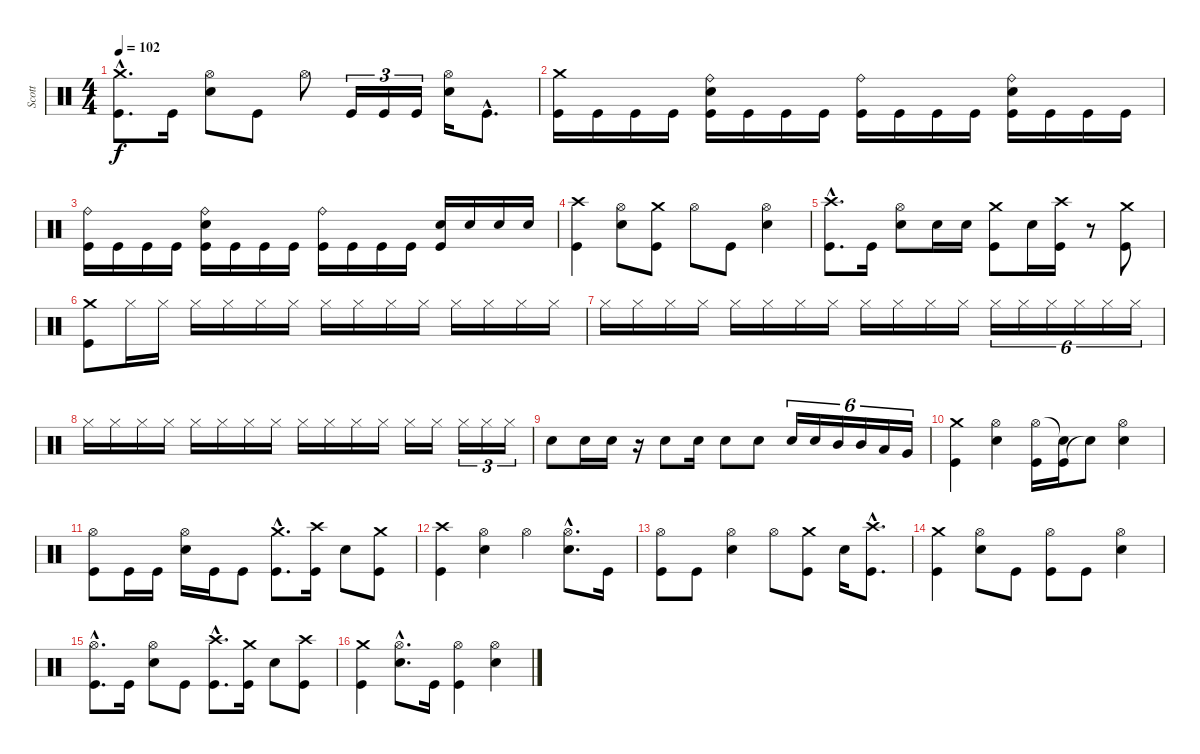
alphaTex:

\track ("Scott" "Scott") {instrument percussion}
\staff {score}
\articulation defaults
\ts (4 4)
\tempo 102
\clef neutral
\ks c
("Kick (hit)"{hac} "Crash medium (hit)"{hac}).8{d dy f} "Kick (hit)".16 ("Snare (hit) 2" "Hi-Hat (open)").8 "Kick (hit)".8 "Hi-Hat (open)".8 "Kick (hit)".16{tu (3 2)} "Kick (hit)".16{tu (3 2)} "Kick (hit)".16{tu (3 2)} ("Snare (hit) 2" "Hi-Hat (open)").16 "Kick (hit)"{hac}.8{d} |
("Kick (hit)" "Crash medium (hit)").16 "Kick (hit)".16 "Kick (hit)".16 "Kick (hit)".16 ("Kick (hit)" "Snare (hit) 2" "Ride (bell)").16 "Kick (hit)".16 "Kick (hit)".16 "Kick (hit)".16 ("Kick (hit)" "Ride (bell)").16 "Kick (hit)".16 "Kick (hit)".16 "Kick (hit)".16 ("Kick (hit)" "Snare (hit) 2" "Ride (bell)").16 "Kick (hit)".16 "Kick (hit)".16 "Kick (hit)".16 |
("Kick (hit)" "Ride (bell)").16 "Kick (hit)".16 "Kick (hit)".16 "Kick (hit)".16 ("Kick (hit)" "Snare (hit) 2" "Ride (bell)").16 "Kick (hit)".16 "Kick (hit)".16 "Kick (hit)".16 ("Kick (hit)" "Ride (bell)").16 "Kick (hit)".16 "Kick (hit)".16 "Kick (hit)".16 ("Kick (hit)" "Snare (hit) 2").16 "Snare (hit) 2".16 "Snare (hit) 2".16 "Snare (hit) 2".16 |
("Kick (hit)" "Crash high (hit)").4 ("Snare (hit) 2" "Hi-Hat (open)").8 ("Kick (hit)" "Crash medium (hit)").8 "Hi-Hat (open)".8 "Kick (hit)".8 ("Snare (hit) 2" "Hi-Hat (open)").4 |
("Kick (hit)"{hac} "Crash high (hit)"{hac}).8{d} "Kick (hit)".16 ("Snare (hit) 2" "Hi-Hat (open)").8 "Snare (hit) 2".16 "Snare (hit) 2".16 ("Kick (hit)" "Crash medium (hit)").8 "Snare (hit) 2".16 ("Kick (hit)" "Crash high (hit)").16 r.8 ("Kick (hit)" "Crash medium (hit)").8 |
("Kick (hit)" "Crash medium (hit)").8 "Hi-Hat (closed)".16 "Hi-Hat (closed)".16 "Hi-Hat (closed)".16 "Hi-Hat (closed)".16 "Hi-Hat (closed)".16 "Hi-Hat (closed)".16 "Hi-Hat (closed)".16 "Hi-Hat (closed)".16 "Hi-Hat (closed)".16 "Hi-Hat (closed)".16 "Hi-Hat (closed)".16 "Hi-Hat (closed)".16 "Hi-Hat (closed)".16 "Hi-Hat (closed)".16 |
"Hi-Hat (closed)".16 "Hi-Hat (closed)".16 "Hi-Hat (closed)".16 "Hi-Hat (closed)".16 "Hi-Hat (closed)".16 "Hi-Hat (closed)".16 "Hi-Hat (closed)".16 "Hi-Hat (closed)".16 "Hi-Hat (closed)".16 "Hi-Hat (closed)".16 "Hi-Hat (closed)".16 "Hi-Hat (closed)".16 "Hi-Hat (closed)".16{tu (6 4)} "Hi-Hat (closed)".16{tu (6 4)} "Hi-Hat (closed)".16{tu (6 4)} "Hi-Hat (closed)".16{tu (6 4)} "Hi-Hat (closed)".16{tu (6 4)} "Hi-Hat (closed)".16{tu (6 4)} |
"Hi-Hat (closed)".16 "Hi-Hat (closed)".16 "Hi-Hat (closed)".16 "Hi-Hat (closed)".16 "Hi-Hat (closed)".16 "Hi-Hat (closed)".16 "Hi-Hat (closed)".16 "Hi-Hat (closed)".16 "Hi-Hat (closed)".16 "Hi-Hat (closed)".16 "Hi-Hat (closed)".16 "Hi-Hat (closed)".16 "Hi-Hat (closed)".16 "Hi-Hat (closed)".16 "Hi-Hat (closed)".16{tu (3 2)} "Hi-Hat (closed)".16{tu (3 2)} "Hi-Hat (closed)".16{tu (3 2)} |
"Snare (hit) 2".8 "Snare (hit) 2".16 "Snare (hit) 2".16 r.16 "Snare (hit) 2".8 "Snare (hit) 2".16 "Snare (hit) 2".8 "Snare (hit) 2".8 "Snare (hit) 2".16{tu (6 4)} "Snare (hit) 2".16{tu (6 4)} "Mid Tom (hit)".16{tu (6 4)} "Mid Tom (hit)".16{tu (6 4)} "Low Tom (hit)".16{tu (6 4)} "Very Low Tom (hit)".16{tu (6 4)} |
("Kick (hit)" "Crash medium (hit)").4 ("Snare (hit) 2" "Hi-Hat (open)").4 ("Kick (hit)" "Hi-Hat (open)").16 ("Kick (hit)" "Snare (hit)"{t}).16 "Snare (hit)"{t}.8 ("Snare (hit) 2" "Hi-Hat (open)").4 |
("Kick (hit)" "Hi-Hat (open)").8 "Kick (hit)".16 "Kick (hit)".16 ("Snare (hit) 2" "Hi-Hat (open)").16 "Kick (hit)".16 "Kick (hit)".8 ("Kick (hit)"{hac} "Crash medium (hit)"{hac}).8{d} ("Kick (hit)" "Crash high (hit)").16 "Snare (hit) 2".8 ("Kick (hit)" "Crash medium (hit)").8 |
("Kick (hit)" "Crash high (hit)").4 ("Snare (hit) 2" "Hi-Hat (open)").4 "Hi-Hat (open)".4 ("Snare (hit) 2"{hac} "Hi-Hat (open)"{hac}).8{d} "Kick (hit)".16 |
("Kick (hit)" "Hi-Hat (open)").8 "Kick (hit)".8 ("Snare (hit) 2" "Hi-Hat (open)").4 "Hi-Hat (open)".8 ("Kick (hit)" "Crash medium (hit)").8 "Snare (hit) 2".16 ("Kick (hit)"{hac} "Crash high (hit)"{hac}).8{d} |
("Kick (hit)" "Crash medium (hit)").4 ("Snare (hit) 2" "Hi-Hat (open)").8 "Kick (hit)".8 ("Kick (hit)" "Hi-Hat (open)").8 "Kick (hit)".8 ("Snare (hit) 2" "Hi-Hat (open)").4 |
("Kick (hit)"{hac} "Hi-Hat (open)"{hac}).8{d} "Kick (hit)".16 ("Snare (hit) 2" "Hi-Hat (open)").8 "Kick (hit)".8 ("Kick (hit)"{hac} "Crash high (hit)"{hac}).8{d} ("Kick (hit)" "Crash medium (hit)").16 "Snare (hit) 2".8 ("Kick (hit)" "Crash high (hit)").8 |
("Kick (hit)" "Crash medium (hit)").4 ("Snare (hit) 2"{hac} "Hi-Hat (open)"{hac}).8{d} "Kick (hit)".16 ("Kick (hit)" "Hi-Hat (open)").4 ("Snare (hit) 2" "Hi-Hat (open)").4
